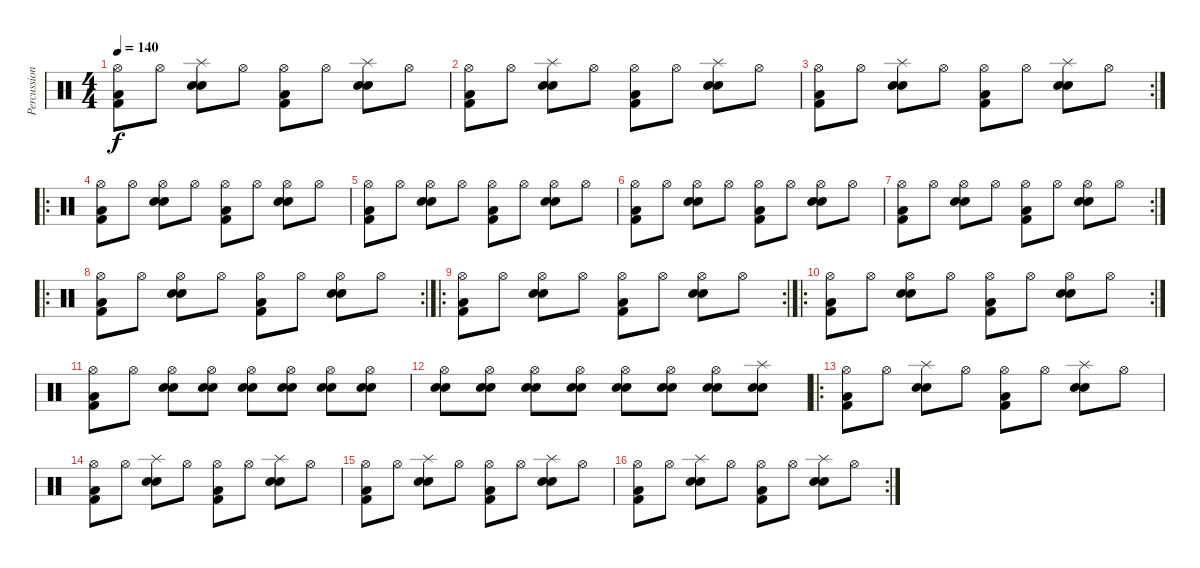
\track ("Percussions" "Percussion") {instrument percussion}
\staff {score}
\articulation defaults
\ts (4 4)
\tempo 140
\clef neutral
\ks c
("Hi-Hat (open)" "Kick (hit) 2" "Low Floor Tom (hit)").8{dy f} "Hi-Hat (open)".8 ("Splash (hit)" "Snare (hit) 2" "Electric Snare (hit)").8 "Hi-Hat (open)".8 ("Hi-Hat (open)" "Kick (hit) 2" "Low Floor Tom (hit)").8 "Hi-Hat (open)".8 ("Splash (hit)" "Snare (hit) 2" "Electric Snare (hit)").8 "Hi-Hat (open)".8 |
("Hi-Hat (open)" "Kick (hit) 2" "Low Floor Tom (hit)").8 "Hi-Hat (open)".8 ("Splash (hit)" "Snare (hit) 2" "Electric Snare (hit)").8 "Hi-Hat (open)".8 ("Hi-Hat (open)" "Kick (hit) 2" "Low Floor Tom (hit)").8 "Hi-Hat (open)".8 ("Splash (hit)" "Snare (hit) 2" "Electric Snare (hit)").8 "Hi-Hat (open)".8 |
\rc 2
("Hi-Hat (open)" "Kick (hit) 2" "Low Floor Tom (hit)").8 "Hi-Hat (open)".8 ("Splash (hit)" "Snare (hit) 2" "Electric Snare (hit)").8 "Hi-Hat (open)".8 ("Hi-Hat (open)" "Kick (hit) 2" "Low Floor Tom (hit)").8 "Hi-Hat (open)".8 ("Splash (hit)" "Snare (hit) 2" "Electric Snare (hit)").8 "Hi-Hat (open)".8 |
\ro
("Hi-Hat (open)" "Kick (hit) 2" "Low Floor Tom (hit)").8 "Hi-Hat (open)".8 ("Hi-Hat (open)" "Snare (hit) 2" "Electric Snare (hit)").8 "Hi-Hat (open)".8 ("Hi-Hat (open)" "Kick (hit) 2" "Low Floor Tom (hit)").8 "Hi-Hat (open)".8 ("Hi-Hat (open)" "Snare (hit) 2" "Electric Snare (hit)").8 "Hi-Hat (open)".8 |
("Hi-Hat (open)" "Kick (hit) 2" "Low Floor Tom (hit)").8 "Hi-Hat (open)".8 ("Hi-Hat (open)" "Snare (hit) 2" "Electric Snare (hit)").8 "Hi-Hat (open)".8 ("Hi-Hat (open)" "Kick (hit) 2" "Low Floor Tom (hit)").8 "Hi-Hat (open)".8 ("Hi-Hat (open)" "Snare (hit) 2" "Electric Snare (hit)").8 "Hi-Hat (open)".8 |
("Hi-Hat (open)" "Kick (hit) 2" "Low Floor Tom (hit)").8 "Hi-Hat (open)".8 ("Hi-Hat (open)" "Snare (hit) 2" "Electric Snare (hit)").8 "Hi-Hat (open)".8 ("Hi-Hat (open)" "Kick (hit) 2" "Low Floor Tom (hit)").8 "Hi-Hat (open)".8 ("Hi-Hat (open)" "Snare (hit) 2" "Electric Snare (hit)").8 "Hi-Hat (open)".8 |
\rc 2
("Hi-Hat (open)" "Kick (hit) 2" "Low Floor Tom (hit)").8 "Hi-Hat (open)".8 ("Hi-Hat (open)" "Snare (hit) 2" "Electric Snare (hit)").8 "Hi-Hat (open)".8 ("Hi-Hat (open)" "Kick (hit) 2" "Low Floor Tom (hit)").8 "Hi-Hat (open)".8 ("Hi-Hat (open)" "Snare (hit) 2" "Electric Snare (hit)").8 "Hi-Hat (open)".8 |
\ro
\rc 2
("Hi-Hat (open)" "Kick (hit) 2" "Low Floor Tom (hit)").8 "Hi-Hat (open)".8 ("Hi-Hat (open)" "Snare (hit) 2" "Electric Snare (hit)").8 "Hi-Hat (open)".8 ("Hi-Hat (open)" "Kick (hit) 2" "Low Floor Tom (hit)").8 "Hi-Hat (open)".8 ("Hi-Hat (open)" "Snare (hit) 2" "Electric Snare (hit)").8 "Hi-Hat (open)".8 |
\ro
\rc 2
("Hi-Hat (open)" "Kick (hit) 2" "Low Floor Tom (hit)").8 "Hi-Hat (open)".8 ("Hi-Hat (open)" "Snare (hit) 2" "Electric Snare (hit)").8 "Hi-Hat (open)".8 ("Hi-Hat (open)" "Kick (hit) 2" "Low Floor Tom (hit)").8 "Hi-Hat (open)".8 ("Hi-Hat (open)" "Snare (hit) 2" "Electric Snare (hit)").8 "Hi-Hat (open)".8 |
\ro
\rc 2
("Hi-Hat (open)" "Kick (hit) 2" "Low Floor Tom (hit)").8 "Hi-Hat (open)".8 ("Hi-Hat (open)" "Snare (hit) 2" "Electric Snare (hit)").8 "Hi-Hat (open)".8 ("Hi-Hat (open)" "Kick (hit) 2" "Low Floor Tom (hit)").8 "Hi-Hat (open)".8 ("Hi-Hat (open)" "Snare (hit) 2" "Electric Snare (hit)").8 "Hi-Hat (open)".8 |
("Hi-Hat (open)" "Kick (hit) 2" "Low Floor Tom (hit)").8 "Hi-Hat (open)".8 ("Hi-Hat (open)" "Snare (hit) 2" "Electric Snare (hit)").8 ("Hi-Hat (open)" "Snare (hit) 2" "Electric Snare (hit)").8 ("Hi-Hat (open)" "Snare (hit) 2" "Electric Snare (hit)").8 ("Hi-Hat (open)" "Snare (hit) 2" "Electric Snare (hit)").8 ("Hi-Hat (open)" "Snare (hit) 2" "Electric Snare (hit)").8 ("Hi-Hat (open)" "Snare (hit) 2" "Electric Snare (hit)").8 |
("Hi-Hat (open)" "Snare (hit) 2" "Electric Snare (hit)").8 ("Hi-Hat (open)" "Snare (hit) 2" "Electric Snare (hit)").8 ("Hi-Hat (open)" "Snare (hit) 2" "Electric Snare (hit)").8 ("Hi-Hat (open)" "Snare (hit) 2" "Electric Snare (hit)").8 ("Hi-Hat (open)" "Snare (hit) 2" "Electric Snare (hit)").8 ("Hi-Hat (open)" "Snare (hit) 2" "Electric Snare (hit)").8 ("Hi-Hat (open)" "Snare (hit) 2" "Electric Snare (hit)").8 ("Splash (hit)" "Snare (hit) 2" "Electric Snare (hit)").8 |
\ro
("Hi-Hat (open)" "Kick (hit) 2" "Low Floor Tom (hit)").8 "Hi-Hat (open)".8 ("Splash (hit)" "Snare (hit) 2" "Electric Snare (hit)").8 "Hi-Hat (open)".8 ("Hi-Hat (open)" "Kick (hit) 2" "Low Floor Tom (hit)").8 "Hi-Hat (open)".8 ("Splash (hit)" "Snare (hit) 2" "Electric Snare (hit)").8 "Hi-Hat (open)".8 |
("Hi-Hat (open)" "Kick (hit) 2" "Low Floor Tom (hit)").8 "Hi-Hat (open)".8 ("Splash (hit)" "Snare (hit) 2" "Electric Snare (hit)").8 "Hi-Hat (open)".8 ("Hi-Hat (open)" "Kick (hit) 2" "Low Floor Tom (hit)").8 "Hi-Hat (open)".8 ("Splash (hit)" "Snare (hit) 2" "Electric Snare (hit)").8 "Hi-Hat (open)".8 |
("Hi-Hat (open)" "Kick (hit) 2" "Low Floor Tom (hit)").8 "Hi-Hat (open)".8 ("Splash (hit)" "Snare (hit) 2" "Electric Snare (hit)").8 "Hi-Hat (open)".8 ("Hi-Hat (open)" "Kick (hit) 2" "Low Floor Tom (hit)").8 "Hi-Hat (open)".8 ("Splash (hit)" "Snare (hit) 2" "Electric Snare (hit)").8 "Hi-Hat (open)".8 |
\rc 2
("Hi-Hat (open)" "Kick (hit) 2" "Low Floor Tom (hit)").8 "Hi-Hat (open)".8 ("Splash (hit)" "Snare (hit) 2" "Electric Snare (hit)").8 "Hi-Hat (open)".8 ("Hi-Hat (open)" "Kick (hit) 2" "Low Floor Tom (hit)").8 "Hi-Hat (open)".8 ("Splash (hit)" "Snare (hit) 2" "Electric Snare (hit)").8 "Hi-Hat (open)".8
